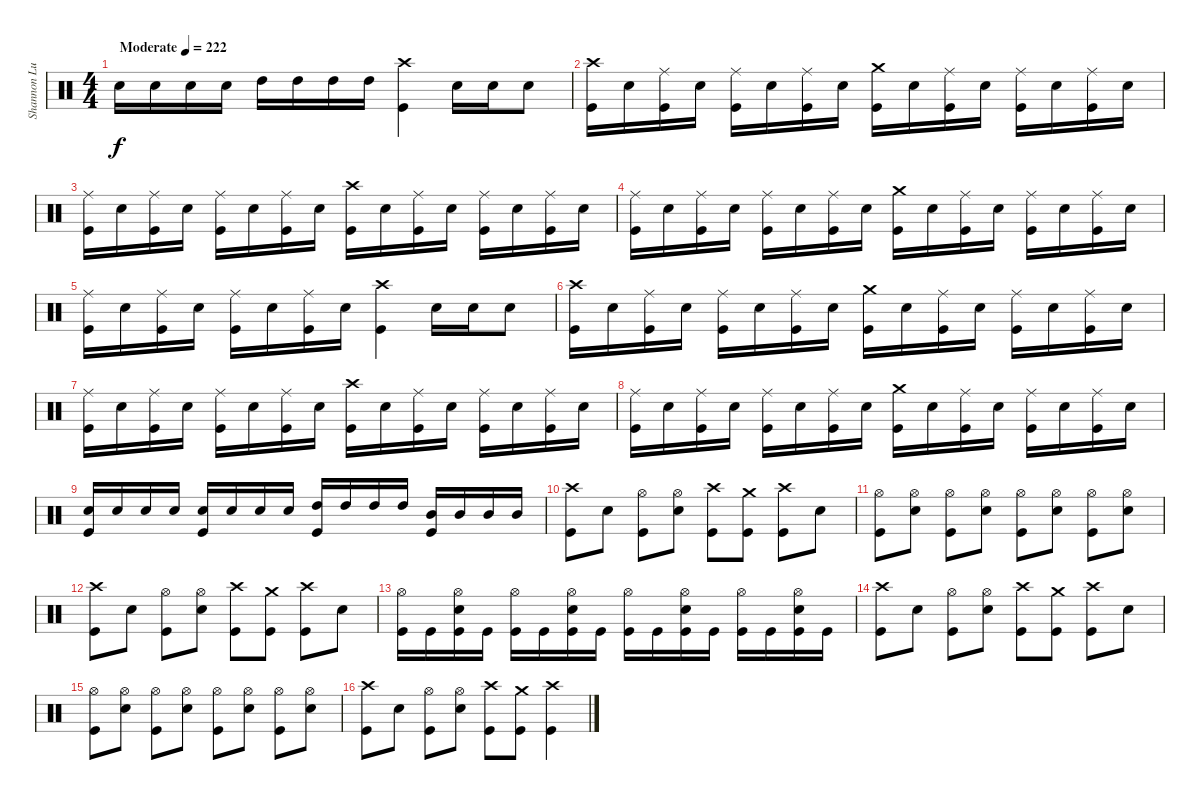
\track ("Shannon Lucas" "Shannon Lu") {instrument percussion}
\staff {score}
\articulation defaults
\ts (4 4)
\tempo (222 "Moderate")
\clef neutral
\ks c "Snare (hit) 2".16{dy f} "Snare (hit) 2".16 "Snare (hit) 2".16 "Snare (hit) 2".16 "High Tom (hit)".16 "High Tom (hit)".16 "High Tom (hit)".16 "High Tom (hit)".16
("Crash high (hit)" "Kick (hit)").4 "Snare (hit) 2".16 "Snare (hit) 2".16 "Snare (hit) 2".8 |
("Crash high (hit)" "Kick (hit)").16 "Snare (hit) 2".16 ("Ride (middle)" "Kick (hit)").16 "Snare (hit) 2".16 ("Ride (middle)" "Kick (hit)").16 "Snare (hit) 2".16 ("Ride (middle)" "Kick (hit)").16 "Snare (hit) 2".16 ("Crash medium (hit)" "Kick (hit)").16 "Snare (hit) 2".16 ("Ride (middle)" "Kick (hit)").16 "Snare (hit) 2".16 ("Ride (middle)" "Kick (hit)").16 "Snare (hit) 2".16 ("Ride (middle)" "Kick (hit)").16 "Snare (hit) 2".16 |
("Ride (middle)" "Kick (hit)").16 "Snare (hit) 2".16 ("Ride (middle)" "Kick (hit)").16 "Snare (hit) 2".16 ("Ride (middle)" "Kick (hit)").16 "Snare (hit) 2".16 ("Ride (middle)" "Kick (hit)").16 "Snare (hit) 2".16 ("Crash high (hit)" "Kick (hit)").16 "Snare (hit) 2".16 ("Ride (middle)" "Kick (hit)").16 "Snare (hit) 2".16 ("Ride (middle)" "Kick (hit)").16 "Snare (hit) 2".16 ("Ride (middle)" "Kick (hit)").16 "Snare (hit) 2".16 |
("Ride (middle)" "Kick (hit)").16 "Snare (hit) 2".16 ("Ride (middle)" "Kick (hit)").16 "Snare (hit) 2".16 ("Ride (middle)" "Kick (hit)").16 "Snare (hit) 2".16 ("Ride (middle)" "Kick (hit)").16 "Snare (hit) 2".16 ("Crash medium (hit)" "Kick (hit)").16 "Snare (hit) 2".16 ("Ride (middle)" "Kick (hit)").16 "Snare (hit) 2".16 ("Ride (middle)" "Kick (hit)").16 "Snare (hit) 2".16 ("Ride (middle)" "Kick (hit)").16 "Snare (hit) 2".16 |
("Ride (middle)" "Kick (hit)").16 "Snare (hit) 2".16 ("Ride (middle)" "Kick (hit)").16 "Snare (hit) 2".16 ("Ride (middle)" "Kick (hit)").16 "Snare (hit) 2".16 ("Ride (middle)" "Kick (hit)").16 "Snare (hit) 2".16 ("Crash high (hit)" "Kick (hit)").4 "Snare (hit) 2".16 "Snare (hit) 2".16 "Snare (hit) 2".8 |
("Crash high (hit)" "Kick (hit)").16 "Snare (hit) 2".16 ("Ride (middle)" "Kick (hit)").16 "Snare (hit) 2".16 ("Ride (middle)" "Kick (hit)").16 "Snare (hit) 2".16 ("Ride (middle)" "Kick (hit)").16 "Snare (hit) 2".16 ("Crash medium (hit)" "Kick (hit)").16 "Snare (hit) 2".16 ("Ride (middle)" "Kick (hit)").16 "Snare (hit) 2".16 ("Ride (middle)" "Kick (hit)").16 "Snare (hit) 2".16 ("Ride (middle)" "Kick (hit)").16 "Snare (hit) 2".16 |
("Ride (middle)" "Kick (hit)").16 "Snare (hit) 2".16 ("Ride (middle)" "Kick (hit)").16 "Snare (hit) 2".16 ("Ride (middle)" "Kick (hit)").16 "Snare (hit) 2".16 ("Ride (middle)" "Kick (hit)").16 "Snare (hit) 2".16 ("Crash high (hit)" "Kick (hit)").16 "Snare (hit) 2".16 ("Ride (middle)" "Kick (hit)").16 "Snare (hit) 2".16 ("Ride (middle)" "Kick (hit)").16 "Snare (hit) 2".16 ("Ride (middle)" "Kick (hit)").16 "Snare (hit) 2".16 |
("Ride (middle)" "Kick (hit)").16 "Snare (hit) 2".16 ("Ride (middle)" "Kick (hit)").16 "Snare (hit) 2".16 ("Ride (middle)" "Kick (hit)").16 "Snare (hit) 2".16 ("Ride (middle)" "Kick (hit)").16 "Snare (hit) 2".16 ("Crash medium (hit)" "Kick (hit)").16 "Snare (hit) 2".16 ("Ride (middle)" "Kick (hit)").16 "Snare (hit) 2".16 ("Ride (middle)" "Kick (hit)").16 "Snare (hit) 2".16 ("Ride (middle)" "Kick (hit)").16 "Snare (hit) 2".16 |
("Snare (hit) 2" "Kick (hit)").16 "Snare (hit) 2".16 "Snare (hit) 2".16 "Snare (hit) 2".16 ("Snare (hit) 2" "Kick (hit)").16 "Snare (hit) 2".16 "Snare (hit) 2".16 "Snare (hit) 2".16 ("High Tom (hit)" "Kick (hit)").16 "High Tom (hit)".16 "High Tom (hit)".16 "High Tom (hit)".16 ("Mid Tom (hit)" "Kick (hit)").16 "Mid Tom (hit)".16 "Mid Tom (hit)".16 "Mid Tom (hit)".16 |
("Crash high (hit)" "Kick (hit)").8 "Snare (hit) 2".8 ("Hi-Hat (open)" "Kick (hit)").8 ("Hi-Hat (open)" "Snare (hit) 2").8 ("Crash high (hit)" "Kick (hit)").8 ("Crash medium (hit)" "Kick (hit)").8 ("Crash high (hit)" "Kick (hit)").8 "Snare (hit) 2".8 |
("Hi-Hat (open)" "Kick (hit)").8 ("Hi-Hat (open)" "Snare (hit) 2").8 ("Hi-Hat (open)" "Kick (hit)").8 ("Hi-Hat (open)" "Snare (hit) 2").8 ("Hi-Hat (open)" "Kick (hit)").8 ("Hi-Hat (open)" "Snare (hit) 2").8 ("Hi-Hat (open)" "Kick (hit)").8 ("Hi-Hat (open)" "Snare (hit) 2").8 |
("Crash high (hit)" "Kick (hit)").8 "Snare (hit) 2".8 ("Hi-Hat (open)" "Kick (hit)").8 ("Hi-Hat (open)" "Snare (hit) 2").8 ("Crash high (hit)" "Kick (hit)").8 ("Crash medium (hit)" "Kick (hit)").8 ("Crash high (hit)" "Kick (hit)").8 "Snare (hit) 2".8 |
("Hi-Hat (open)" "Kick (hit)").16 "Kick (hit)".16 ("Hi-Hat (open)" "Snare (hit) 2" "Kick (hit)").16 "Kick (hit)".16 ("Hi-Hat (open)" "Kick (hit)").16 "Kick (hit)".16 ("Hi-Hat (open)" "Snare (hit) 2" "Kick (hit)").16 "Kick (hit)".16 ("Hi-Hat (open)" "Kick (hit)").16 "Kick (hit)".16 ("Hi-Hat (open)" "Snare (hit) 2" "Kick (hit)").16 "Kick (hit)".16 ("Hi-Hat (open)" "Kick (hit)").16 "Kick (hit)".16 ("Hi-Hat (open)" "Snare (hit) 2" "Kick (hit)").16 "Kick (hit)".16 |
("Crash high (hit)" "Kick (hit)").8 "Snare (hit) 2".8 ("Hi-Hat (open)" "Kick (hit)").8 ("Hi-Hat (open)" "Snare (hit) 2").8 ("Crash high (hit)" "Kick (hit)").8 ("Crash medium (hit)" "Kick (hit)").8 ("Crash high (hit)" "Kick (hit)").8 "Snare (hit) 2".8 |
("Hi-Hat (open)" "Kick (hit)").8 ("Hi-Hat (open)" "Snare (hit) 2").8 ("Hi-Hat (open)" "Kick (hit)").8 ("Hi-Hat (open)" "Snare (hit) 2").8 ("Hi-Hat (open)" "Kick (hit)").8 ("Hi-Hat (open)" "Snare (hit) 2").8 ("Hi-Hat (open)" "Kick (hit)").8 ("Hi-Hat (open)" "Snare (hit) 2").8 |
("Crash high (hit)" "Kick (hit)").8 "Snare (hit) 2".8 ("Hi-Hat (open)" "Kick (hit)").8 ("Hi-Hat (open)" "Snare (hit) 2").8 ("Crash high (hit)" "Kick (hit)").8 ("Crash medium (hit)" "Kick (hit)").8 ("Crash high (hit)" "Kick (hit)").4
